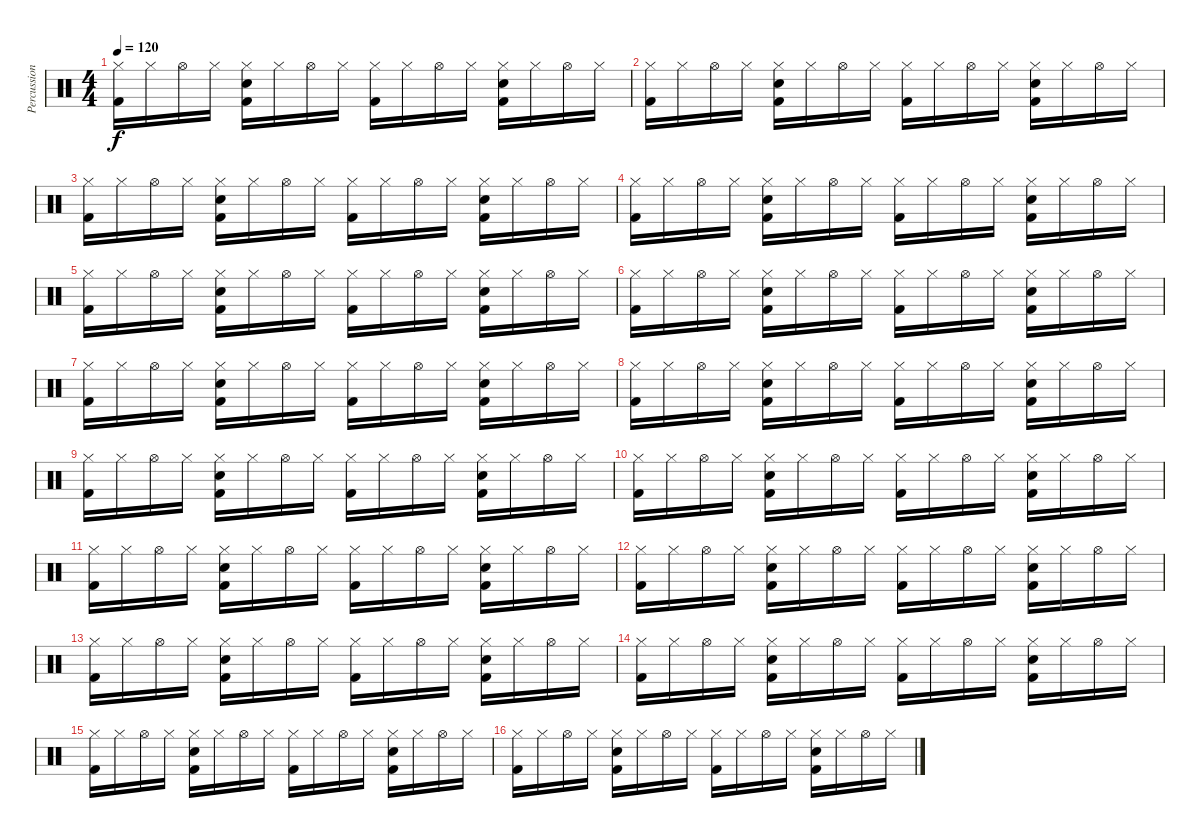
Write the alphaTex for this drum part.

\track ("Percussion" "Percussion") {instrument percussion}
\staff {score}
\articulation defaults
\ts (4 4)
\tempo 120
\clef neutral
\ks c
("Hi-Hat (closed)" "Kick (hit) 2").16{dy f} "Hi-Hat (closed)".16 "Hi-Hat (open)".16 "Hi-Hat (closed)".16 ("Hi-Hat (closed)" "Snare (hit) 2" "Kick (hit) 2").16 "Hi-Hat (closed)".16 "Hi-Hat (open)".16 "Hi-Hat (closed)".16 ("Hi-Hat (closed)" "Kick (hit) 2").16 "Hi-Hat (closed)".16 "Hi-Hat (open)".16 "Hi-Hat (closed)".16 ("Hi-Hat (closed)" "Snare (hit) 2" "Kick (hit) 2").16 "Hi-Hat (closed)".16 "Hi-Hat (open)".16 "Hi-Hat (closed)".16 |
("Hi-Hat (closed)" "Kick (hit) 2").16 "Hi-Hat (closed)".16 "Hi-Hat (open)".16 "Hi-Hat (closed)".16 ("Hi-Hat (closed)" "Snare (hit) 2" "Kick (hit) 2").16 "Hi-Hat (closed)".16 "Hi-Hat (open)".16 "Hi-Hat (closed)".16 ("Hi-Hat (closed)" "Kick (hit) 2").16 "Hi-Hat (closed)".16 "Hi-Hat (open)".16 "Hi-Hat (closed)".16 ("Hi-Hat (closed)" "Snare (hit) 2" "Kick (hit) 2").16 "Hi-Hat (closed)".16 "Hi-Hat (open)".16 "Hi-Hat (closed)".16 |
("Hi-Hat (closed)" "Kick (hit) 2").16 "Hi-Hat (closed)".16 "Hi-Hat (open)".16 "Hi-Hat (closed)".16 ("Hi-Hat (closed)" "Snare (hit) 2" "Kick (hit) 2").16 "Hi-Hat (closed)".16 "Hi-Hat (open)".16 "Hi-Hat (closed)".16 ("Hi-Hat (closed)" "Kick (hit) 2").16 "Hi-Hat (closed)".16 "Hi-Hat (open)".16 "Hi-Hat (closed)".16 ("Hi-Hat (closed)" "Snare (hit) 2" "Kick (hit) 2").16 "Hi-Hat (closed)".16 "Hi-Hat (open)".16 "Hi-Hat (closed)".16 |
("Hi-Hat (closed)" "Kick (hit) 2").16 "Hi-Hat (closed)".16 "Hi-Hat (open)".16 "Hi-Hat (closed)".16 ("Hi-Hat (closed)" "Snare (hit) 2" "Kick (hit) 2").16 "Hi-Hat (closed)".16 "Hi-Hat (open)".16 "Hi-Hat (closed)".16 ("Hi-Hat (closed)" "Kick (hit) 2").16 "Hi-Hat (closed)".16 "Hi-Hat (open)".16 "Hi-Hat (closed)".16 ("Hi-Hat (closed)" "Snare (hit) 2" "Kick (hit) 2").16 "Hi-Hat (closed)".16 "Hi-Hat (open)".16 "Hi-Hat (closed)".16 |
("Hi-Hat (closed)" "Kick (hit) 2").16 "Hi-Hat (closed)".16 "Hi-Hat (open)".16 "Hi-Hat (closed)".16 ("Hi-Hat (closed)" "Snare (hit) 2" "Kick (hit) 2").16 "Hi-Hat (closed)".16 "Hi-Hat (open)".16 "Hi-Hat (closed)".16 ("Hi-Hat (closed)" "Kick (hit) 2").16 "Hi-Hat (closed)".16 "Hi-Hat (open)".16 "Hi-Hat (closed)".16 ("Hi-Hat (closed)" "Snare (hit) 2" "Kick (hit) 2").16 "Hi-Hat (closed)".16 "Hi-Hat (open)".16 "Hi-Hat (closed)".16 |
("Hi-Hat (closed)" "Kick (hit) 2").16 "Hi-Hat (closed)".16 "Hi-Hat (open)".16 "Hi-Hat (closed)".16 ("Hi-Hat (closed)" "Snare (hit) 2" "Kick (hit) 2").16 "Hi-Hat (closed)".16 "Hi-Hat (open)".16 "Hi-Hat (closed)".16 ("Hi-Hat (closed)" "Kick (hit) 2").16 "Hi-Hat (closed)".16 "Hi-Hat (open)".16 "Hi-Hat (closed)".16 ("Hi-Hat (closed)" "Snare (hit) 2" "Kick (hit) 2").16 "Hi-Hat (closed)".16 "Hi-Hat (open)".16 "Hi-Hat (closed)".16 |
("Hi-Hat (closed)" "Kick (hit) 2").16 "Hi-Hat (closed)".16 "Hi-Hat (open)".16 "Hi-Hat (closed)".16 ("Hi-Hat (closed)" "Snare (hit) 2" "Kick (hit) 2").16 "Hi-Hat (closed)".16 "Hi-Hat (open)".16 "Hi-Hat (closed)".16 ("Hi-Hat (closed)" "Kick (hit) 2").16 "Hi-Hat (closed)".16 "Hi-Hat (open)".16 "Hi-Hat (closed)".16 ("Hi-Hat (closed)" "Snare (hit) 2" "Kick (hit) 2").16 "Hi-Hat (closed)".16 "Hi-Hat (open)".16 "Hi-Hat (closed)".16 |
("Hi-Hat (closed)" "Kick (hit) 2").16 "Hi-Hat (closed)".16 "Hi-Hat (open)".16 "Hi-Hat (closed)".16 ("Hi-Hat (closed)" "Snare (hit) 2" "Kick (hit) 2").16 "Hi-Hat (closed)".16 "Hi-Hat (open)".16 "Hi-Hat (closed)".16 ("Hi-Hat (closed)" "Kick (hit) 2").16 "Hi-Hat (closed)".16 "Hi-Hat (open)".16 "Hi-Hat (closed)".16 ("Hi-Hat (closed)" "Snare (hit) 2" "Kick (hit) 2").16 "Hi-Hat (closed)".16 "Hi-Hat (open)".16 "Hi-Hat (closed)".16 |
("Hi-Hat (closed)" "Kick (hit) 2").16 "Hi-Hat (closed)".16 "Hi-Hat (open)".16 "Hi-Hat (closed)".16 ("Hi-Hat (closed)" "Snare (hit) 2" "Kick (hit) 2").16 "Hi-Hat (closed)".16 "Hi-Hat (open)".16 "Hi-Hat (closed)".16 ("Hi-Hat (closed)" "Kick (hit) 2").16 "Hi-Hat (closed)".16 "Hi-Hat (open)".16 "Hi-Hat (closed)".16 ("Hi-Hat (closed)" "Snare (hit) 2" "Kick (hit) 2").16 "Hi-Hat (closed)".16 "Hi-Hat (open)".16 "Hi-Hat (closed)".16 |
("Hi-Hat (closed)" "Kick (hit) 2").16 "Hi-Hat (closed)".16 "Hi-Hat (open)".16 "Hi-Hat (closed)".16 ("Hi-Hat (closed)" "Snare (hit) 2" "Kick (hit) 2").16 "Hi-Hat (closed)".16 "Hi-Hat (open)".16 "Hi-Hat (closed)".16 ("Hi-Hat (closed)" "Kick (hit) 2").16 "Hi-Hat (closed)".16 "Hi-Hat (open)".16 "Hi-Hat (closed)".16 ("Hi-Hat (closed)" "Snare (hit) 2" "Kick (hit) 2").16 "Hi-Hat (closed)".16 "Hi-Hat (open)".16 "Hi-Hat (closed)".16 |
("Hi-Hat (closed)" "Kick (hit) 2").16 "Hi-Hat (closed)".16 "Hi-Hat (open)".16 "Hi-Hat (closed)".16 ("Hi-Hat (closed)" "Snare (hit) 2" "Kick (hit) 2").16 "Hi-Hat (closed)".16 "Hi-Hat (open)".16 "Hi-Hat (closed)".16 ("Hi-Hat (closed)" "Kick (hit) 2").16 "Hi-Hat (closed)".16 "Hi-Hat (open)".16 "Hi-Hat (closed)".16 ("Hi-Hat (closed)" "Snare (hit) 2" "Kick (hit) 2").16 "Hi-Hat (closed)".16 "Hi-Hat (open)".16 "Hi-Hat (closed)".16 |
("Hi-Hat (closed)" "Kick (hit) 2").16 "Hi-Hat (closed)".16 "Hi-Hat (open)".16 "Hi-Hat (closed)".16 ("Hi-Hat (closed)" "Snare (hit) 2" "Kick (hit) 2").16 "Hi-Hat (closed)".16 "Hi-Hat (open)".16 "Hi-Hat (closed)".16 ("Hi-Hat (closed)" "Kick (hit) 2").16 "Hi-Hat (closed)".16 "Hi-Hat (open)".16 "Hi-Hat (closed)".16 ("Hi-Hat (closed)" "Snare (hit) 2" "Kick (hit) 2").16 "Hi-Hat (closed)".16 "Hi-Hat (open)".16 "Hi-Hat (closed)".16 |
("Hi-Hat (closed)" "Kick (hit) 2").16 "Hi-Hat (closed)".16 "Hi-Hat (open)".16 "Hi-Hat (closed)".16 ("Hi-Hat (closed)" "Snare (hit) 2" "Kick (hit) 2").16 "Hi-Hat (closed)".16 "Hi-Hat (open)".16 "Hi-Hat (closed)".16 ("Hi-Hat (closed)" "Kick (hit) 2").16 "Hi-Hat (closed)".16 "Hi-Hat (open)".16 "Hi-Hat (closed)".16 ("Hi-Hat (closed)" "Snare (hit) 2" "Kick (hit) 2").16 "Hi-Hat (closed)".16 "Hi-Hat (open)".16 "Hi-Hat (closed)".16 |
("Hi-Hat (closed)" "Kick (hit) 2").16 "Hi-Hat (closed)".16 "Hi-Hat (open)".16 "Hi-Hat (closed)".16 ("Hi-Hat (closed)" "Snare (hit) 2" "Kick (hit) 2").16 "Hi-Hat (closed)".16 "Hi-Hat (open)".16 "Hi-Hat (closed)".16 ("Hi-Hat (closed)" "Kick (hit) 2").16 "Hi-Hat (closed)".16 "Hi-Hat (open)".16 "Hi-Hat (closed)".16 ("Hi-Hat (closed)" "Snare (hit) 2" "Kick (hit) 2").16 "Hi-Hat (closed)".16 "Hi-Hat (open)".16 "Hi-Hat (closed)".16 |
("Hi-Hat (closed)" "Kick (hit) 2").16 "Hi-Hat (closed)".16 "Hi-Hat (open)".16 "Hi-Hat (closed)".16 ("Hi-Hat (closed)" "Snare (hit) 2" "Kick (hit) 2").16 "Hi-Hat (closed)".16 "Hi-Hat (open)".16 "Hi-Hat (closed)".16 ("Hi-Hat (closed)" "Kick (hit) 2").16 "Hi-Hat (closed)".16 "Hi-Hat (open)".16 "Hi-Hat (closed)".16 ("Hi-Hat (closed)" "Snare (hit) 2" "Kick (hit) 2").16 "Hi-Hat (closed)".16 "Hi-Hat (open)".16 "Hi-Hat (closed)".16 |
("Hi-Hat (closed)" "Kick (hit) 2").16 "Hi-Hat (closed)".16 "Hi-Hat (open)".16 "Hi-Hat (closed)".16 ("Hi-Hat (closed)" "Snare (hit) 2" "Kick (hit) 2").16 "Hi-Hat (closed)".16 "Hi-Hat (open)".16 "Hi-Hat (closed)".16 ("Hi-Hat (closed)" "Kick (hit) 2").16 "Hi-Hat (closed)".16 "Hi-Hat (open)".16 "Hi-Hat (closed)".16 ("Hi-Hat (closed)" "Snare (hit) 2" "Kick (hit) 2").16 "Hi-Hat (closed)".16 "Hi-Hat (open)".16 "Hi-Hat (closed)".16
